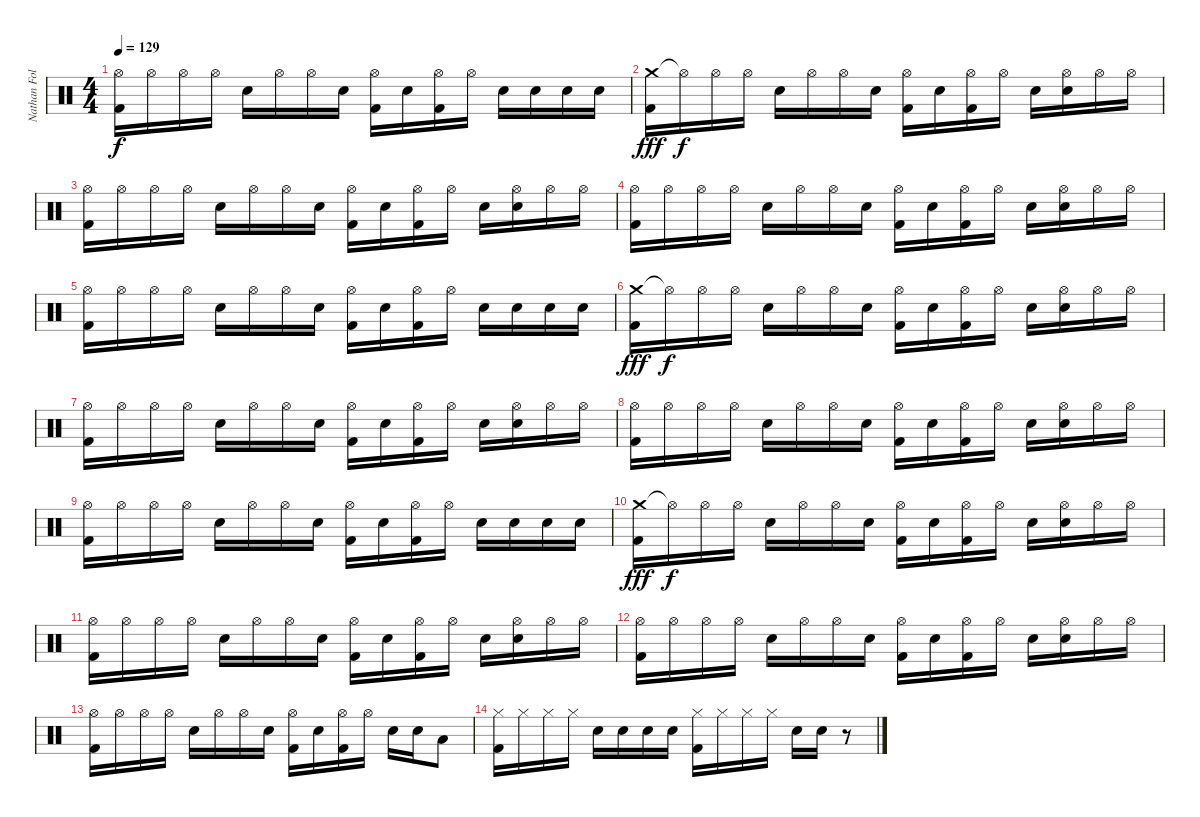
\track ("Nathan Followill" "Nathan Fol") {instrument percussion}
\staff {score}
\articulation defaults
\ts (4 4)
\tempo 129
\clef neutral
\ks c
("Hi-Hat (open)" "Kick (hit) 2").16{dy f} "Hi-Hat (open)".16 "Hi-Hat (open)".16 "Hi-Hat (open)".16 "Electric Snare (hit)".16 "Hi-Hat (open)".16 "Hi-Hat (open)".16 "Electric Snare (hit)".16 ("Hi-Hat (open)" "Kick (hit) 2").16 "Electric Snare (hit)".16 ("Hi-Hat (open)" "Kick (hit) 2").16 "Hi-Hat (open)".16 "Electric Snare (hit)".16 "Electric Snare (hit)".16 "Electric Snare (hit)".16 "Electric Snare (hit)".16 |
("Crash medium (hit)" "Kick (hit) 2").16{dy fff} "Hi-Hat (open)"{t}.16{dy f} "Hi-Hat (open)".16 "Hi-Hat (open)".16 "Electric Snare (hit)".16 "Hi-Hat (open)".16 "Hi-Hat (open)".16 "Electric Snare (hit)".16 ("Hi-Hat (open)" "Kick (hit) 2").16 "Electric Snare (hit)".16 ("Hi-Hat (open)" "Kick (hit) 2").16 "Hi-Hat (open)".16 "Electric Snare (hit)".16 ("Hi-Hat (open)" "Electric Snare (hit)").16 "Hi-Hat (open)".16 "Hi-Hat (open)".16 |
("Hi-Hat (open)" "Kick (hit) 2").16 "Hi-Hat (open)".16 "Hi-Hat (open)".16 "Hi-Hat (open)".16 "Electric Snare (hit)".16 "Hi-Hat (open)".16 "Hi-Hat (open)".16 "Electric Snare (hit)".16 ("Hi-Hat (open)" "Kick (hit) 2").16 "Electric Snare (hit)".16 ("Hi-Hat (open)" "Kick (hit) 2").16 "Hi-Hat (open)".16 "Electric Snare (hit)".16 ("Hi-Hat (open)" "Electric Snare (hit)").16 "Hi-Hat (open)".16 "Hi-Hat (open)".16 |
("Hi-Hat (open)" "Kick (hit) 2").16 "Hi-Hat (open)".16 "Hi-Hat (open)".16 "Hi-Hat (open)".16 "Electric Snare (hit)".16 "Hi-Hat (open)".16 "Hi-Hat (open)".16 "Electric Snare (hit)".16 ("Hi-Hat (open)" "Kick (hit) 2").16 "Electric Snare (hit)".16 ("Hi-Hat (open)" "Kick (hit) 2").16 "Hi-Hat (open)".16 "Electric Snare (hit)".16 ("Hi-Hat (open)" "Electric Snare (hit)").16 "Hi-Hat (open)".16 "Hi-Hat (open)".16 |
("Hi-Hat (open)" "Kick (hit) 2").16 "Hi-Hat (open)".16 "Hi-Hat (open)".16 "Hi-Hat (open)".16 "Electric Snare (hit)".16 "Hi-Hat (open)".16 "Hi-Hat (open)".16 "Electric Snare (hit)".16 ("Hi-Hat (open)" "Kick (hit) 2").16 "Electric Snare (hit)".16 ("Hi-Hat (open)" "Kick (hit) 2").16 "Hi-Hat (open)".16 "Electric Snare (hit)".16 "Electric Snare (hit)".16 "Electric Snare (hit)".16 "Electric Snare (hit)".16 |
\section ("" "")
("Crash medium (hit)" "Kick (hit) 2").16{dy fff} "Hi-Hat (open)"{t}.16{dy f} "Hi-Hat (open)".16 "Hi-Hat (open)".16 "Electric Snare (hit)".16 "Hi-Hat (open)".16 "Hi-Hat (open)".16 "Electric Snare (hit)".16 ("Hi-Hat (open)" "Kick (hit) 2").16 "Electric Snare (hit)".16 ("Hi-Hat (open)" "Kick (hit) 2").16 "Hi-Hat (open)".16 "Electric Snare (hit)".16 ("Hi-Hat (open)" "Electric Snare (hit)").16 "Hi-Hat (open)".16 "Hi-Hat (open)".16 |
("Hi-Hat (open)" "Kick (hit) 2").16 "Hi-Hat (open)".16 "Hi-Hat (open)".16 "Hi-Hat (open)".16 "Electric Snare (hit)".16 "Hi-Hat (open)".16 "Hi-Hat (open)".16 "Electric Snare (hit)".16 ("Hi-Hat (open)" "Kick (hit) 2").16 "Electric Snare (hit)".16 ("Hi-Hat (open)" "Kick (hit) 2").16 "Hi-Hat (open)".16 "Electric Snare (hit)".16 ("Hi-Hat (open)" "Electric Snare (hit)").16 "Hi-Hat (open)".16 "Hi-Hat (open)".16 |
("Hi-Hat (open)" "Kick (hit) 2").16 "Hi-Hat (open)".16 "Hi-Hat (open)".16 "Hi-Hat (open)".16 "Electric Snare (hit)".16 "Hi-Hat (open)".16 "Hi-Hat (open)".16 "Electric Snare (hit)".16 ("Hi-Hat (open)" "Kick (hit) 2").16 "Electric Snare (hit)".16 ("Hi-Hat (open)" "Kick (hit) 2").16 "Hi-Hat (open)".16 "Electric Snare (hit)".16 ("Hi-Hat (open)" "Electric Snare (hit)").16 "Hi-Hat (open)".16 "Hi-Hat (open)".16 |
("Hi-Hat (open)" "Kick (hit) 2").16 "Hi-Hat (open)".16 "Hi-Hat (open)".16 "Hi-Hat (open)".16 "Electric Snare (hit)".16 "Hi-Hat (open)".16 "Hi-Hat (open)".16 "Electric Snare (hit)".16 ("Hi-Hat (open)" "Kick (hit) 2").16 "Electric Snare (hit)".16 ("Hi-Hat (open)" "Kick (hit) 2").16 "Hi-Hat (open)".16 "Electric Snare (hit)".16 "Electric Snare (hit)".16 "Electric Snare (hit)".16 "Electric Snare (hit)".16 |
("Crash medium (hit)" "Kick (hit) 2").16{dy fff} "Hi-Hat (open)"{t}.16{dy f} "Hi-Hat (open)".16 "Hi-Hat (open)".16 "Electric Snare (hit)".16 "Hi-Hat (open)".16 "Hi-Hat (open)".16 "Electric Snare (hit)".16 ("Hi-Hat (open)" "Kick (hit) 2").16 "Electric Snare (hit)".16 ("Hi-Hat (open)" "Kick (hit) 2").16 "Hi-Hat (open)".16 "Electric Snare (hit)".16 ("Hi-Hat (open)" "Electric Snare (hit)").16 "Hi-Hat (open)".16 "Hi-Hat (open)".16 |
("Hi-Hat (open)" "Kick (hit) 2").16 "Hi-Hat (open)".16 "Hi-Hat (open)".16 "Hi-Hat (open)".16 "Electric Snare (hit)".16 "Hi-Hat (open)".16 "Hi-Hat (open)".16 "Electric Snare (hit)".16 ("Hi-Hat (open)" "Kick (hit) 2").16 "Electric Snare (hit)".16 ("Hi-Hat (open)" "Kick (hit) 2").16 "Hi-Hat (open)".16 "Electric Snare (hit)".16 ("Hi-Hat (open)" "Electric Snare (hit)").16 "Hi-Hat (open)".16 "Hi-Hat (open)".16 |
("Hi-Hat (open)" "Kick (hit) 2").16 "Hi-Hat (open)".16 "Hi-Hat (open)".16 "Hi-Hat (open)".16 "Electric Snare (hit)".16 "Hi-Hat (open)".16 "Hi-Hat (open)".16 "Electric Snare (hit)".16 ("Hi-Hat (open)" "Kick (hit) 2").16 "Electric Snare (hit)".16 ("Hi-Hat (open)" "Kick (hit) 2").16 "Hi-Hat (open)".16 "Electric Snare (hit)".16 ("Hi-Hat (open)" "Electric Snare (hit)").16 "Hi-Hat (open)".16 "Hi-Hat (open)".16 |
("Hi-Hat (open)" "Kick (hit) 2").16 "Hi-Hat (open)".16 "Hi-Hat (open)".16 "Hi-Hat (open)".16 "Electric Snare (hit)".16 "Hi-Hat (open)".16 "Hi-Hat (open)".16 "Electric Snare (hit)".16 ("Hi-Hat (open)" "Kick (hit) 2").16 "Electric Snare (hit)".16 ("Hi-Hat (open)" "Kick (hit) 2").16 "Hi-Hat (open)".16 "Electric Snare (hit)".16 "Electric Snare (hit)".16 "Low Tom (hit)".8 |
("Hi-Hat (closed)" "Kick (hit) 2").16 "Hi-Hat (closed)".16 "Hi-Hat (closed)".16 "Hi-Hat (closed)".16 "Electric Snare (hit)".16 "Electric Snare (hit)".16 "Electric Snare (hit)".16 "Electric Snare (hit)".16 ("Hi-Hat (closed)" "Kick (hit) 2").16 "Hi-Hat (closed)".16 "Hi-Hat (closed)".16 "Hi-Hat (closed)".16 "Electric Snare (hit)".16 "Electric Snare (hit)".16 r.8
